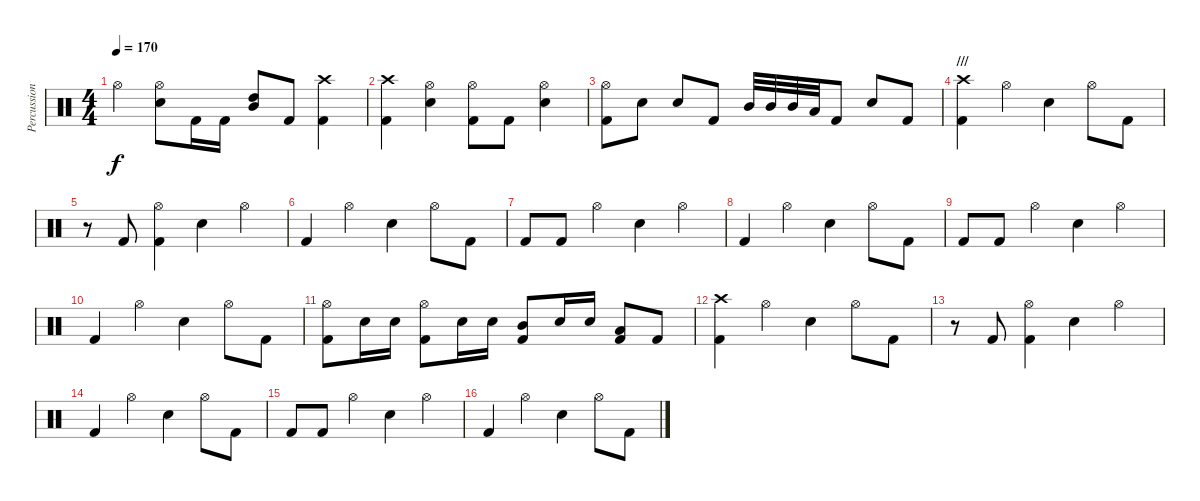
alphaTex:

\track ("Percussion" "Percussion") {instrument percussion}
\staff {score}
\articulation defaults
\ts (4 4)
\tempo 170
\clef neutral
\ks c "Hi-Hat (open)".4{dy f}
("Hi-Hat (open)" "Electric Snare (hit)").8 "Kick (hit) 2".16 "Kick (hit) 2".16 ("Mid Tom (hit)" "High Tom (hit)").8 "Kick (hit) 2".8 ("Crash high (hit)" "Kick (hit) 2").4 |
("Crash high (hit)" "Kick (hit) 2").4 ("Hi-Hat (open)" "Electric Snare (hit)").4 ("Hi-Hat (open)" "Kick (hit) 2").8 "Kick (hit) 2".8 ("Hi-Hat (open)" "Electric Snare (hit)").4 |
("Hi-Hat (open)" "Kick (hit) 2").8 "Electric Snare (hit)".8 "Electric Snare (hit)".8 "Kick (hit) 2".8 "Mid Tom (hit)".32 "Mid Tom (hit)".32 "Mid Tom (hit)".32 "Low Tom (hit)".32 "Kick (hit) 2".8 "Electric Snare (hit)".8 "Kick (hit) 2".8 |
\section ("" "///")
("Crash high (hit)" "Kick (hit) 2").4 "Hi-Hat (open)".4 "Electric Snare (hit)".4 "Hi-Hat (open)".8 "Kick (hit) 2".8 |
r.8 "Kick (hit) 2".8 ("Hi-Hat (open)" "Kick (hit) 2").4 "Electric Snare (hit)".4 "Hi-Hat (open)".4 |
"Kick (hit) 2".4 "Hi-Hat (open)".4 "Electric Snare (hit)".4 "Hi-Hat (open)".8 "Kick (hit) 2".8 |
"Kick (hit) 2".8 "Kick (hit) 2".8 "Hi-Hat (open)".4 "Electric Snare (hit)".4 "Hi-Hat (open)".4 |
"Kick (hit) 2".4 "Hi-Hat (open)".4 "Electric Snare (hit)".4 "Hi-Hat (open)".8 "Kick (hit) 2".8 |
"Kick (hit) 2".8 "Kick (hit) 2".8 "Hi-Hat (open)".4 "Electric Snare (hit)".4 "Hi-Hat (open)".4 |
"Kick (hit) 2".4 "Hi-Hat (open)".4 "Electric Snare (hit)".4 "Hi-Hat (open)".8 "Kick (hit) 2".8 |
("Hi-Hat (open)" "Kick (hit) 2").8 "Electric Snare (hit)".16 "Electric Snare (hit)".16 ("Hi-Hat (open)" "Kick (hit) 2").8 "Electric Snare (hit)".16 "Electric Snare (hit)".16 ("Mid Tom (hit)" "Kick (hit) 2").8 "Electric Snare (hit)".16 "Electric Snare (hit)".16 ("Low Tom (hit)" "Kick (hit) 2").8 "Kick (hit) 2".8 |
("Crash high (hit)" "Kick (hit) 2").4 "Hi-Hat (open)".4 "Electric Snare (hit)".4 "Hi-Hat (open)".8 "Kick (hit) 2".8 |
r.8 "Kick (hit) 2".8 ("Hi-Hat (open)" "Kick (hit) 2").4 "Electric Snare (hit)".4 "Hi-Hat (open)".4 |
"Kick (hit) 2".4 "Hi-Hat (open)".4 "Electric Snare (hit)".4 "Hi-Hat (open)".8 "Kick (hit) 2".8 |
"Kick (hit) 2".8 "Kick (hit) 2".8 "Hi-Hat (open)".4 "Electric Snare (hit)".4 "Hi-Hat (open)".4 |
"Kick (hit) 2".4 "Hi-Hat (open)".4 "Electric Snare (hit)".4 "Hi-Hat (open)".8 "Kick (hit) 2".8
